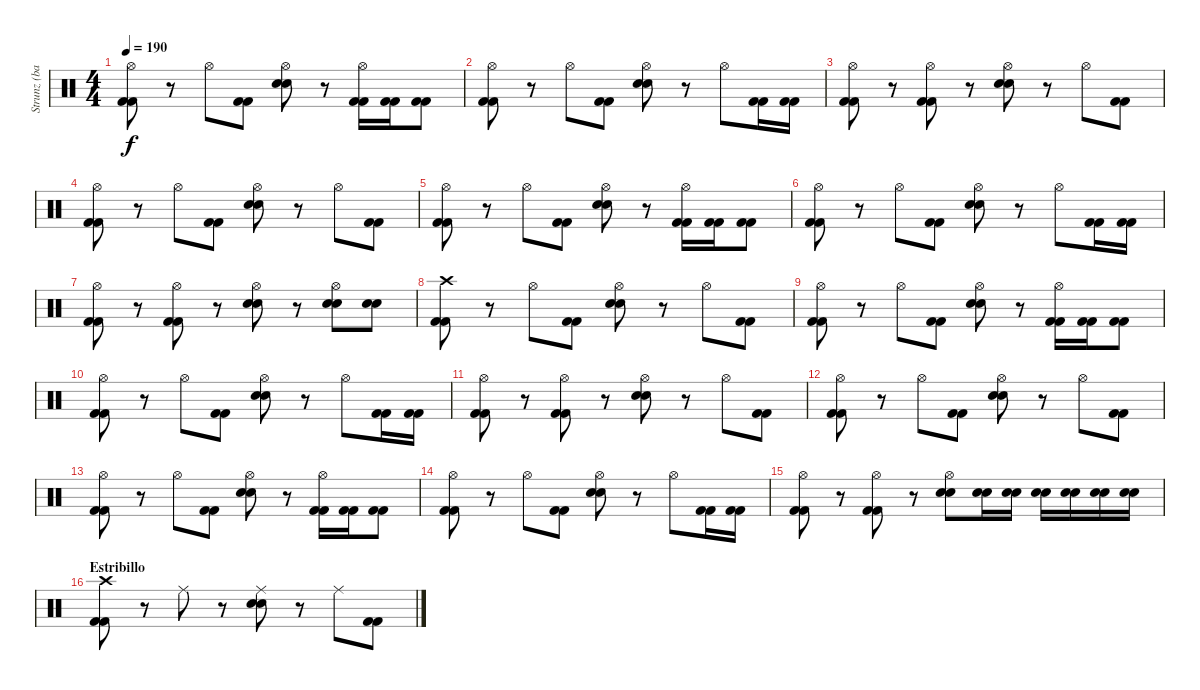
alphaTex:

\track ("Strunz (bateria)" "Strunz (ba") {instrument percussion}
\staff {score}
\articulation defaults
\ts (4 4)
\tempo 190
\clef neutral
\ks c
("Hi-Hat (open)" "Kick (hit) 2" "Kick (hit) 2").8{dy f} r.8 "Hi-Hat (open)".8 ("Kick (hit) 2" "Kick (hit) 2").8 ("Hi-Hat (open)" "Snare (hit) 2" "Snare (hit) 2").8 r.8 ("Hi-Hat (open)" "Kick (hit) 2" "Kick (hit) 2").16 ("Kick (hit) 2" "Kick (hit) 2").16 ("Kick (hit) 2" "Kick (hit) 2").8 |
("Hi-Hat (open)" "Kick (hit) 2" "Kick (hit) 2").8 r.8 "Hi-Hat (open)".8 ("Kick (hit) 2" "Kick (hit) 2").8 ("Hi-Hat (open)" "Snare (hit) 2" "Snare (hit) 2").8 r.8 "Hi-Hat (open)".8 ("Kick (hit) 2" "Kick (hit) 2").16 ("Kick (hit) 2" "Kick (hit) 2").16 |
("Hi-Hat (open)" "Kick (hit) 2" "Kick (hit) 2").8 r.8 ("Hi-Hat (open)" "Kick (hit) 2" "Kick (hit) 2").8 r.8 ("Hi-Hat (open)" "Snare (hit) 2" "Snare (hit) 2").8 r.8 "Hi-Hat (open)".8 ("Kick (hit) 2" "Kick (hit) 2").8 |
("Hi-Hat (open)" "Kick (hit) 2" "Kick (hit) 2").8 r.8 "Hi-Hat (open)".8 ("Kick (hit) 2" "Kick (hit) 2").8 ("Hi-Hat (open)" "Snare (hit) 2" "Snare (hit) 2").8 r.8 "Hi-Hat (open)".8 ("Kick (hit) 2" "Kick (hit) 2").8 |
("Hi-Hat (open)" "Kick (hit) 2" "Kick (hit) 2").8 r.8 "Hi-Hat (open)".8 ("Kick (hit) 2" "Kick (hit) 2").8 ("Hi-Hat (open)" "Snare (hit) 2" "Snare (hit) 2").8 r.8 ("Hi-Hat (open)" "Kick (hit) 2" "Kick (hit) 2").16 ("Kick (hit) 2" "Kick (hit) 2").16 ("Kick (hit) 2" "Kick (hit) 2").8 |
("Hi-Hat (open)" "Kick (hit) 2" "Kick (hit) 2").8 r.8 "Hi-Hat (open)".8 ("Kick (hit) 2" "Kick (hit) 2").8 ("Hi-Hat (open)" "Snare (hit) 2" "Snare (hit) 2").8 r.8 "Hi-Hat (open)".8 ("Kick (hit) 2" "Kick (hit) 2").16 ("Kick (hit) 2" "Kick (hit) 2").16 |
("Hi-Hat (open)" "Kick (hit) 2" "Kick (hit) 2").8 r.8 ("Hi-Hat (open)" "Kick (hit) 2" "Kick (hit) 2").8 r.8 ("Hi-Hat (open)" "Snare (hit) 2" "Snare (hit) 2").8 r.8 ("Hi-Hat (open)" "Snare (hit) 2" "Snare (hit) 2").8 ("Snare (hit) 2" "Snare (hit) 2").8 |
("Crash high (hit)" "Kick (hit) 2" "Kick (hit) 2").8 r.8 "Hi-Hat (open)".8 ("Kick (hit) 2" "Kick (hit) 2").8 ("Hi-Hat (open)" "Snare (hit) 2" "Snare (hit) 2").8 r.8 "Hi-Hat (open)".8 ("Kick (hit) 2" "Kick (hit) 2").8 |
("Hi-Hat (open)" "Kick (hit) 2" "Kick (hit) 2").8 r.8 "Hi-Hat (open)".8 ("Kick (hit) 2" "Kick (hit) 2").8 ("Hi-Hat (open)" "Snare (hit) 2" "Snare (hit) 2").8 r.8 ("Hi-Hat (open)" "Kick (hit) 2" "Kick (hit) 2").16 ("Kick (hit) 2" "Kick (hit) 2").16 ("Kick (hit) 2" "Kick (hit) 2").8 |
("Hi-Hat (open)" "Kick (hit) 2" "Kick (hit) 2").8 r.8 "Hi-Hat (open)".8 ("Kick (hit) 2" "Kick (hit) 2").8 ("Hi-Hat (open)" "Snare (hit) 2" "Snare (hit) 2").8 r.8 "Hi-Hat (open)".8 ("Kick (hit) 2" "Kick (hit) 2").16 ("Kick (hit) 2" "Kick (hit) 2").16 |
("Hi-Hat (open)" "Kick (hit) 2" "Kick (hit) 2").8 r.8 ("Hi-Hat (open)" "Kick (hit) 2" "Kick (hit) 2").8 r.8 ("Hi-Hat (open)" "Snare (hit) 2" "Snare (hit) 2").8 r.8 "Hi-Hat (open)".8 ("Kick (hit) 2" "Kick (hit) 2").8 |
("Hi-Hat (open)" "Kick (hit) 2" "Kick (hit) 2").8 r.8 "Hi-Hat (open)".8 ("Kick (hit) 2" "Kick (hit) 2").8 ("Hi-Hat (open)" "Snare (hit) 2" "Snare (hit) 2").8 r.8 "Hi-Hat (open)".8 ("Kick (hit) 2" "Kick (hit) 2").8 |
("Hi-Hat (open)" "Kick (hit) 2" "Kick (hit) 2").8 r.8 "Hi-Hat (open)".8 ("Kick (hit) 2" "Kick (hit) 2").8 ("Hi-Hat (open)" "Snare (hit) 2" "Snare (hit) 2").8 r.8 ("Hi-Hat (open)" "Kick (hit) 2" "Kick (hit) 2").16 ("Kick (hit) 2" "Kick (hit) 2").16 ("Kick (hit) 2" "Kick (hit) 2").8 |
("Hi-Hat (open)" "Kick (hit) 2" "Kick (hit) 2").8 r.8 "Hi-Hat (open)".8 ("Kick (hit) 2" "Kick (hit) 2").8 ("Hi-Hat (open)" "Snare (hit) 2" "Snare (hit) 2").8 r.8 "Hi-Hat (open)".8 ("Kick (hit) 2" "Kick (hit) 2").16 ("Kick (hit) 2" "Kick (hit) 2").16 |
("Hi-Hat (open)" "Kick (hit) 2" "Kick (hit) 2").8 r.8 ("Hi-Hat (open)" "Kick (hit) 2" "Kick (hit) 2").8 r.8 ("Hi-Hat (open)" "Snare (hit) 2" "Snare (hit) 2").8 ("Snare (hit) 2" "Snare (hit) 2").16 ("Snare (hit) 2" "Snare (hit) 2").16 ("Snare (hit) 2" "Snare (hit) 2").16 ("Snare (hit) 2" "Snare (hit) 2").16 ("Snare (hit) 2" "Snare (hit) 2").16 ("Snare (hit) 2" "Snare (hit) 2").16 |
\section ("" "Estribillo")
("Crash high (hit)" "Kick (hit) 2" "Kick (hit) 2").8 r.8 "Ride (middle)".8 r.8 ("Ride (middle)" "Snare (hit) 2" "Snare (hit) 2").8 r.8 "Ride (middle)".8 ("Kick (hit) 2" "Kick (hit) 2").8
